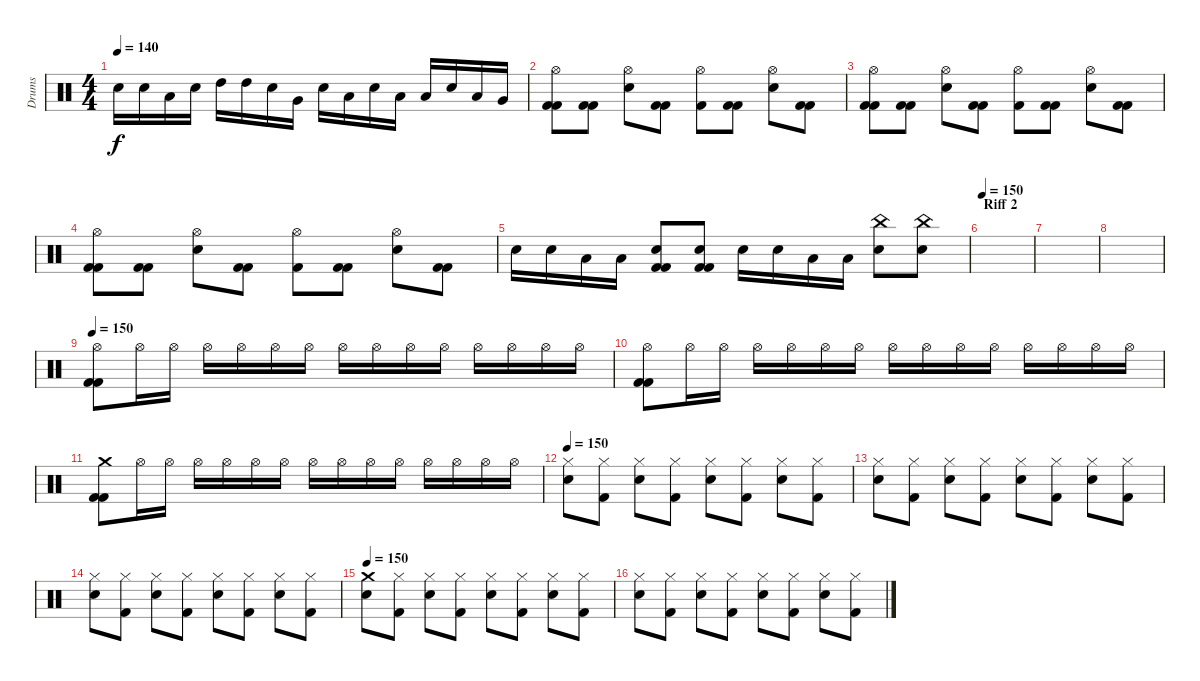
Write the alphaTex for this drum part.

\track ("Drums" "Drums") {instrument percussion}
\staff {score}
\articulation defaults
\ts (4 4)
\tempo 140
\clef neutral
\ks c "Electric Snare (hit)".16{dy f} "Electric Snare (hit)".16 "Low Tom (hit)".16 "Electric Snare (hit)".16 "High Tom (hit)".16 "High Tom (hit)".16 "Electric Snare (hit)".16 "Very Low Tom (hit)".16 "Electric Snare (hit)".16 "Low Tom (hit)".16 "Electric Snare (hit)".16 "Low Floor Tom (hit)".16 "Low Floor Tom (hit)".16 "Electric Snare (hit)".16 "Low Tom (hit)".16 "Very Low Tom (hit)".16
|
("Hi-Hat (open)" "Kick (hit) 2" "Kick (hit) 2").8 ("Kick (hit) 2" "Kick (hit) 2").8 ("Electric Snare (hit)" "Hi-Hat (open)").8 ("Kick (hit) 2" "Kick (hit) 2").8 ("Hi-Hat (open)" "Kick (hit) 2").8 ("Kick (hit) 2" "Kick (hit) 2").8 ("Electric Snare (hit)" "Hi-Hat (open)").8 ("Kick (hit) 2" "Kick (hit) 2").8 |
("Hi-Hat (open)" "Kick (hit) 2" "Kick (hit) 2").8 ("Kick (hit) 2" "Kick (hit) 2").8 ("Electric Snare (hit)" "Hi-Hat (open)").8 ("Kick (hit) 2" "Kick (hit) 2").8 ("Hi-Hat (open)" "Kick (hit) 2").8 ("Kick (hit) 2" "Kick (hit) 2").8 ("Electric Snare (hit)" "Hi-Hat (open)").8 ("Kick (hit) 2" "Kick (hit) 2").8 |
("Hi-Hat (open)" "Kick (hit) 2" "Kick (hit) 2").8 ("Kick (hit) 2" "Kick (hit) 2").8 ("Electric Snare (hit)" "Hi-Hat (open)").8 ("Kick (hit) 2" "Kick (hit) 2").8 ("Hi-Hat (open)" "Kick (hit) 2").8 ("Kick (hit) 2" "Kick (hit) 2").8 ("Electric Snare (hit)" "Hi-Hat (open)").8 ("Kick (hit) 2" "Kick (hit) 2").8 |
"Electric Snare (hit)".16 "Electric Snare (hit)".16 "Low Tom (hit)".16 "Low Tom (hit)".16 ("Kick (hit) 2" "Kick (hit) 2" "Electric Snare (hit)").8 ("Electric Snare (hit)" "Kick (hit) 2" "Kick (hit) 2").8 "Electric Snare (hit)".16 "Electric Snare (hit)".16 "Low Tom (hit)".16 "Low Tom (hit)".16 ("China (hit)" "Electric Snare (hit)").8 ("Electric Snare (hit)" "China (hit)").8 |
\section ("" "Riff 2")
\tempo 150
|
|
|
\tempo 150
("Hi-Hat (open)" "Kick (hit) 2" "Kick (hit) 2").8 "Hi-Hat (open)".16 "Hi-Hat (open)".16 "Hi-Hat (open)".16 "Hi-Hat (open)".16 "Hi-Hat (open)".16 "Hi-Hat (open)".16 "Hi-Hat (open)".16 "Hi-Hat (open)".16 "Hi-Hat (open)".16 "Hi-Hat (open)".16 "Hi-Hat (open)".16 "Hi-Hat (open)".16 "Hi-Hat (open)".16 "Hi-Hat (open)".16 |
("Hi-Hat (open)" "Kick (hit) 2" "Kick (hit) 2").8 "Hi-Hat (open)".16 "Hi-Hat (open)".16 "Hi-Hat (open)".16 "Hi-Hat (open)".16 "Hi-Hat (open)".16 "Hi-Hat (open)".16 "Hi-Hat (open)".16 "Hi-Hat (open)".16 "Hi-Hat (open)".16 "Hi-Hat (open)".16 "Hi-Hat (open)".16 "Hi-Hat (open)".16 "Hi-Hat (open)".16 "Hi-Hat (open)".16 |
("Crash medium (hit)" "Kick (hit) 2" "Kick (hit) 2").8 "Hi-Hat (open)".16 "Hi-Hat (open)".16 "Hi-Hat (open)".16 "Hi-Hat (open)".16 "Hi-Hat (open)".16 "Hi-Hat (open)".16 "Hi-Hat (open)".16 "Hi-Hat (open)".16 "Hi-Hat (open)".16 "Hi-Hat (open)".16 "Hi-Hat (open)".16 "Hi-Hat (open)".16 "Hi-Hat (open)".16 "Hi-Hat (open)".16 |
\tempo 150
("Hi-Hat (closed)" "Electric Snare (hit)").8 ("Kick (hit) 2" "Hi-Hat (closed)").8 ("Electric Snare (hit)" "Hi-Hat (closed)").8 ("Hi-Hat (closed)" "Kick (hit) 2").8 ("Hi-Hat (closed)" "Electric Snare (hit)").8 ("Kick (hit) 2" "Hi-Hat (closed)").8 ("Hi-Hat (closed)" "Electric Snare (hit)").8 ("Kick (hit) 2" "Hi-Hat (closed)").8 |
("Hi-Hat (closed)" "Electric Snare (hit)").8 ("Kick (hit) 2" "Hi-Hat (closed)").8 ("Electric Snare (hit)" "Hi-Hat (closed)").8 ("Hi-Hat (closed)" "Kick (hit) 2").8 ("Hi-Hat (closed)" "Electric Snare (hit)").8 ("Kick (hit) 2" "Hi-Hat (closed)").8 ("Hi-Hat (closed)" "Electric Snare (hit)").8 ("Kick (hit) 2" "Hi-Hat (closed)").8 |
("Hi-Hat (closed)" "Electric Snare (hit)").8 ("Kick (hit) 2" "Hi-Hat (closed)").8 ("Electric Snare (hit)" "Hi-Hat (closed)").8 ("Hi-Hat (closed)" "Kick (hit) 2").8 ("Hi-Hat (closed)" "Electric Snare (hit)").8 ("Kick (hit) 2" "Hi-Hat (closed)").8 ("Hi-Hat (closed)" "Electric Snare (hit)").8 ("Kick (hit) 2" "Hi-Hat (closed)").8 |
\tempo 150
("Crash medium (hit)" "Electric Snare (hit)").8 ("Kick (hit) 2" "Hi-Hat (closed)").8 ("Electric Snare (hit)" "Hi-Hat (closed)").8 ("Hi-Hat (closed)" "Kick (hit) 2").8 ("Hi-Hat (closed)" "Electric Snare (hit)").8 ("Kick (hit) 2" "Hi-Hat (closed)").8 ("Hi-Hat (closed)" "Electric Snare (hit)").8 ("Kick (hit) 2" "Hi-Hat (closed)").8 |
("Hi-Hat (closed)" "Electric Snare (hit)").8 ("Kick (hit) 2" "Hi-Hat (closed)").8 ("Electric Snare (hit)" "Hi-Hat (closed)").8 ("Hi-Hat (closed)" "Kick (hit) 2").8 ("Hi-Hat (closed)" "Electric Snare (hit)").8 ("Kick (hit) 2" "Hi-Hat (closed)").8 ("Hi-Hat (closed)" "Electric Snare (hit)").8 ("Kick (hit) 2" "Hi-Hat (closed)").8
